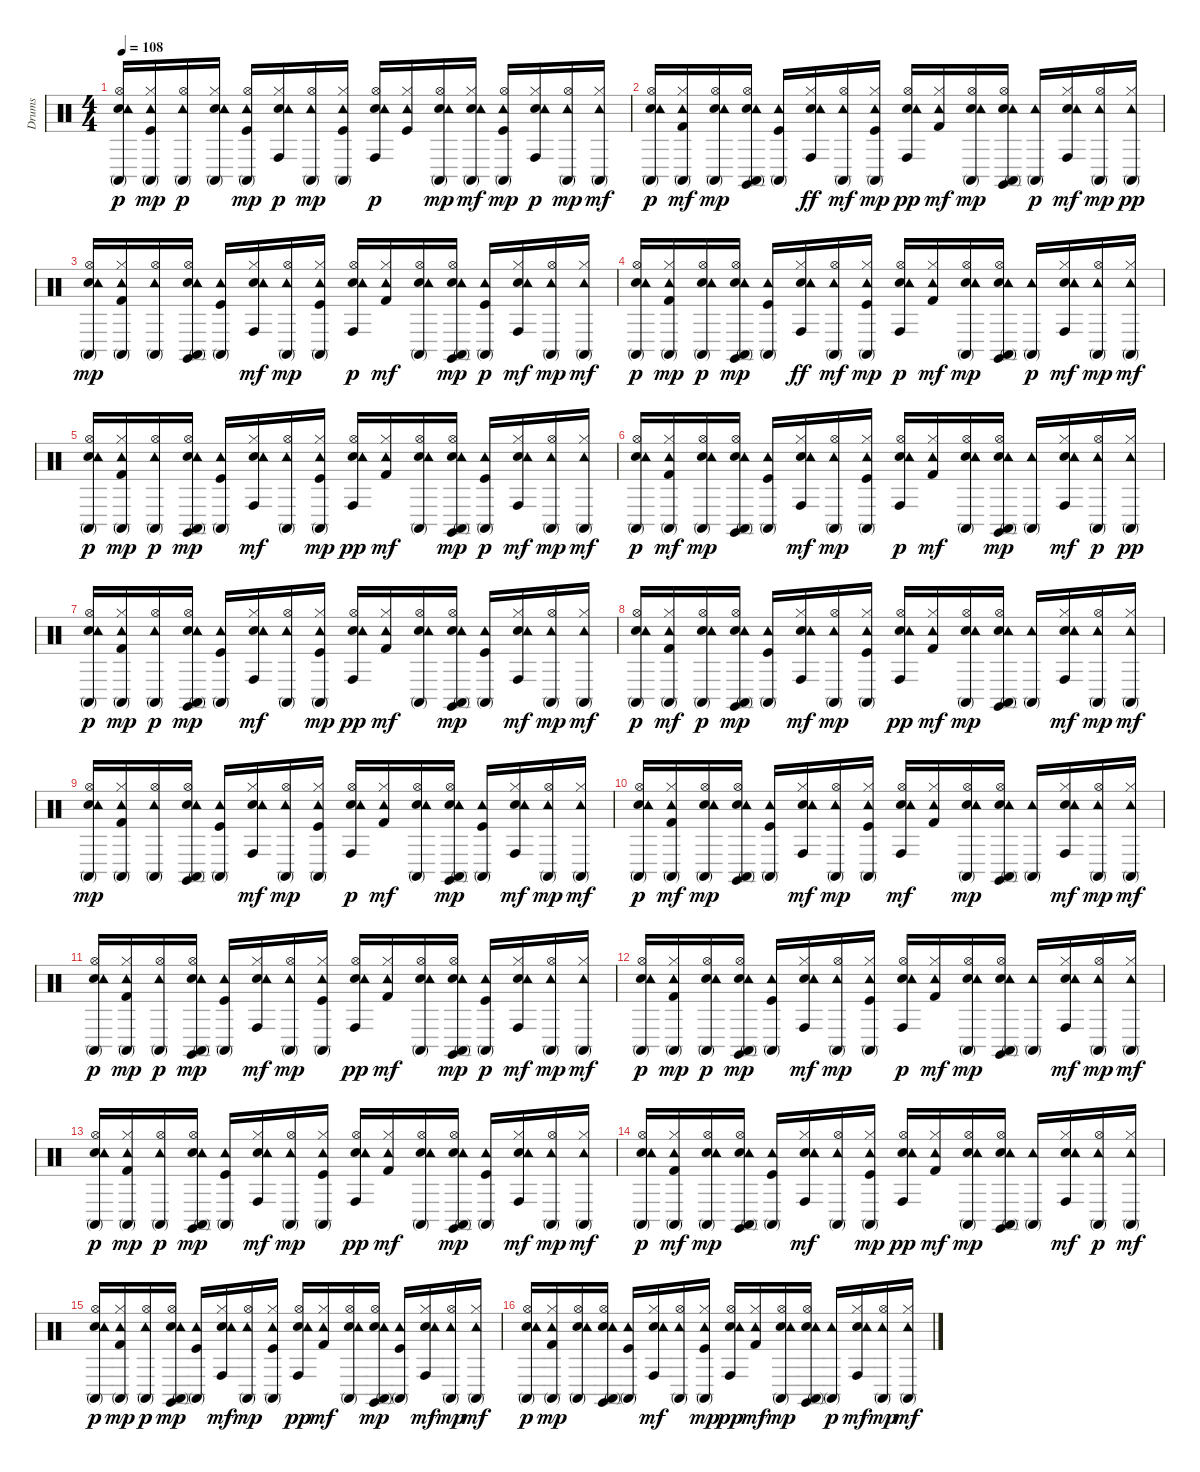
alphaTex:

\track ("Drums" "Drums") {instrument percussion}
\staff {score}
\articulation defaults
\ts (4 4)
\tempo 108
\clef neutral
\ks c
("Snare (hit) 2" "Hi-Hat (open)" "Tambourine (hit)" "Conga high (mute)").16{dy p} ("Kick (hit)" "Hi-Hat (closed)" "Tambourine (hit)" "Conga high (mute)").16{dy mp} ("Hi-Hat (open)" "Tambourine (hit)" "Conga high (mute)").16{dy p} ("Snare (hit) 2" "Hi-Hat (closed)" "Tambourine (hit)" "Conga high (mute)").16 ("Kick (hit)" "Hi-Hat (open)" "Tambourine (hit)" "Conga high (mute)").16{dy mp} ("Electric Snare (hit)" "Hi-Hat (closed)" "Tambourine (hit)" "Conga high (hit)").16{dy p} ("Hi-Hat (open)" "Tambourine (hit)" "Conga high (mute)").16{dy mp} ("Kick (hit)" "Hi-Hat (closed)" "Tambourine (hit)" "Conga high (mute)").16 ("Snare (hit) 2" "Hi-Hat (open)" "Tambourine (hit)" "Conga high (hit)").16{dy p} ("Kick (hit)" "Hi-Hat (closed)" "Tambourine (hit)").16 ("Snare (hit) 2" "Hi-Hat (open)" "Tambourine (hit)" "Conga high (mute)").16{dy mp} ("Snare (hit) 2" "Hi-Hat (closed)" "Tambourine (hit)" "Conga high (mute)").16{dy mf} ("Kick (hit)" "Hi-Hat (open)" "Tambourine (hit)" "Conga high (mute)").16{dy mp} ("Electric Snare (hit)" "Hi-Hat (closed)" "Tambourine (hit)" "Conga high (hit)").16{dy p} ("Hi-Hat (open)" "Tambourine (hit)" "Conga high (mute)").16{dy mp} ("Hi-Hat (closed)" "Tambourine (hit)" "Conga high (mute)").16{dy mf} |
("Snare (hit) 2" "Hi-Hat (open)" "Tambourine (hit)" "Conga high (mute)").16{dy p} ("Kick (hit) 2" "Hi-Hat (closed)" "Tambourine (hit)" "Conga high (mute)").16{dy mf} ("Snare (hit) 2" "Hi-Hat (open)" "Tambourine (hit)" "Conga high (mute)").16{dy mp} ("Snare (hit) 2" "Hi-Hat (open)" "Tambourine (hit)" "Conga high (mute)" "Claves (hit)").16 ("Kick (hit)" "Tambourine (hit)" "Conga high (mute)").16 ("Snare (hit) 2" "Hi-Hat (closed)" "Tambourine (hit)" "Conga high (hit)").16{dy ff} ("Hi-Hat (open)" "Tambourine (hit)" "Conga high (mute)").16{dy mf} ("Kick (hit)" "Hi-Hat (closed)" "Tambourine (hit)" "Conga high (mute)").16{dy mp} ("Snare (hit) 2" "Hi-Hat (open)" "Tambourine (hit)" "Conga high (hit)").16{dy pp} ("Kick (hit) 2" "Hi-Hat (closed)" "Tambourine (hit)").16{dy mf} ("Snare (hit) 2" "Hi-Hat (open)" "Tambourine (hit)" "Conga high (mute)").16{dy mp} ("Snare (hit) 2" "Hi-Hat (open)" "Tambourine (hit)" "Conga high (mute)" "Claves (hit)").16 ("Tambourine (hit)" "Conga high (mute)").16{dy p} ("Snare (hit) 2" "Hi-Hat (closed)" "Tambourine (hit)" "Conga high (hit)").16{dy mf} ("Hi-Hat (open)" "Tambourine (hit)" "Conga high (mute)").16{dy mp} ("Hi-Hat (closed)" "Tambourine (hit)" "Conga high (mute)").16{dy pp} |
("Snare (hit) 2" "Hi-Hat (open)" "Tambourine (hit)" "Conga high (mute)").16{dy mp} ("Kick (hit) 2" "Hi-Hat (closed)" "Tambourine (hit)" "Conga high (mute)").16 ("Hi-Hat (open)" "Tambourine (hit)" "Conga high (mute)").16 ("Snare (hit) 2" "Hi-Hat (open)" "Tambourine (hit)" "Conga high (mute)" "Claves (hit)").16 ("Kick (hit)" "Tambourine (hit)" "Conga high (mute)").16 ("Snare (hit) 2" "Hi-Hat (closed)" "Tambourine (hit)" "Conga high (hit)").16{dy mf} ("Hi-Hat (open)" "Tambourine (hit)" "Conga high (mute)").16{dy mp} ("Kick (hit)" "Hi-Hat (closed)" "Tambourine (hit)" "Conga high (mute)").16 ("Snare (hit) 2" "Hi-Hat (open)" "Tambourine (hit)" "Conga high (hit)").16{dy p} ("Kick (hit) 2" "Hi-Hat (closed)" "Tambourine (hit)").16{dy mf} ("Snare (hit) 2" "Hi-Hat (open)" "Tambourine (hit)" "Conga high (mute)").16 ("Snare (hit) 2" "Hi-Hat (open)" "Tambourine (hit)" "Conga high (mute)" "Claves (hit)").16{dy mp} ("Kick (hit)" "Tambourine (hit)" "Conga high (mute)").16{dy p} ("Snare (hit) 2" "Hi-Hat (closed)" "Tambourine (hit)" "Conga high (hit)").16{dy mf} ("Hi-Hat (open)" "Tambourine (hit)" "Conga high (mute)").16{dy mp} ("Hi-Hat (closed)" "Tambourine (hit)" "Conga high (mute)").16{dy mf} |
("Snare (hit) 2" "Hi-Hat (open)" "Tambourine (hit)" "Conga high (mute)").16{dy p} ("Kick (hit) 2" "Hi-Hat (closed)" "Tambourine (hit)" "Conga high (mute)").16{dy mp} ("Snare (hit) 2" "Hi-Hat (open)" "Tambourine (hit)" "Conga high (mute)").16{dy p} ("Snare (hit) 2" "Hi-Hat (open)" "Tambourine (hit)" "Conga high (mute)" "Claves (hit)").16{dy mp} ("Kick (hit)" "Tambourine (hit)" "Conga high (mute)").16 ("Snare (hit) 2" "Hi-Hat (closed)" "Tambourine (hit)" "Conga high (hit)").16{dy ff} ("Hi-Hat (open)" "Tambourine (hit)" "Conga high (mute)").16{dy mf} ("Kick (hit)" "Hi-Hat (closed)" "Tambourine (hit)" "Conga high (mute)").16{dy mp} ("Snare (hit) 2" "Hi-Hat (open)" "Tambourine (hit)" "Conga high (hit)").16{dy p} ("Kick (hit) 2" "Hi-Hat (closed)" "Tambourine (hit)").16{dy mf} ("Snare (hit) 2" "Hi-Hat (open)" "Tambourine (hit)" "Conga high (mute)").16{dy mp} ("Snare (hit) 2" "Hi-Hat (open)" "Tambourine (hit)" "Conga high (mute)" "Claves (hit)").16 ("Tambourine (hit)" "Conga high (mute)").16{dy p} ("Snare (hit) 2" "Hi-Hat (closed)" "Tambourine (hit)" "Conga high (hit)").16{dy mf} ("Hi-Hat (open)" "Tambourine (hit)" "Conga high (mute)").16{dy mp} ("Hi-Hat (closed)" "Tambourine (hit)" "Conga high (mute)").16{dy mf} |
("Snare (hit) 2" "Hi-Hat (open)" "Tambourine (hit)" "Conga high (mute)").16{dy p} ("Kick (hit) 2" "Hi-Hat (closed)" "Tambourine (hit)" "Conga high (mute)").16{dy mp} ("Hi-Hat (open)" "Tambourine (hit)" "Conga high (mute)").16{dy p} ("Snare (hit) 2" "Hi-Hat (open)" "Tambourine (hit)" "Conga high (mute)" "Claves (hit)").16{dy mp} ("Kick (hit)" "Tambourine (hit)" "Conga high (mute)").16 ("Snare (hit) 2" "Hi-Hat (closed)" "Tambourine (hit)" "Conga high (hit)").16{dy mf} ("Hi-Hat (open)" "Tambourine (hit)" "Conga high (mute)").16 ("Kick (hit)" "Hi-Hat (closed)" "Tambourine (hit)" "Conga high (mute)").16{dy mp} ("Snare (hit) 2" "Hi-Hat (open)" "Tambourine (hit)" "Conga high (hit)").16{dy pp} ("Kick (hit) 2" "Hi-Hat (closed)" "Tambourine (hit)").16{dy mf} ("Snare (hit) 2" "Hi-Hat (open)" "Tambourine (hit)" "Conga high (mute)").16 ("Snare (hit) 2" "Hi-Hat (open)" "Tambourine (hit)" "Conga high (mute)" "Claves (hit)").16{dy mp} ("Kick (hit)" "Tambourine (hit)" "Conga high (mute)").16{dy p} ("Snare (hit) 2" "Hi-Hat (closed)" "Tambourine (hit)" "Conga high (hit)").16{dy mf} ("Hi-Hat (open)" "Tambourine (hit)" "Conga high (mute)").16{dy mp} ("Hi-Hat (closed)" "Tambourine (hit)" "Conga high (mute)").16{dy mf} |
("Snare (hit) 2" "Hi-Hat (open)" "Tambourine (hit)" "Conga high (mute)").16{dy p} ("Kick (hit) 2" "Hi-Hat (closed)" "Tambourine (hit)" "Conga high (mute)").16{dy mf} ("Snare (hit) 2" "Hi-Hat (open)" "Tambourine (hit)" "Conga high (mute)").16{dy mp} ("Snare (hit) 2" "Hi-Hat (open)" "Tambourine (hit)" "Conga high (mute)" "Claves (hit)").16 ("Kick (hit)" "Tambourine (hit)" "Conga high (mute)").16 ("Snare (hit) 2" "Hi-Hat (closed)" "Tambourine (hit)" "Conga high (hit)").16{dy mf} ("Hi-Hat (open)" "Tambourine (hit)" "Conga high (mute)").16{dy mp} ("Kick (hit)" "Hi-Hat (closed)" "Tambourine (hit)" "Conga high (mute)").16 ("Snare (hit) 2" "Hi-Hat (open)" "Tambourine (hit)" "Conga high (hit)").16{dy p} ("Kick (hit) 2" "Hi-Hat (closed)" "Tambourine (hit)").16{dy mf} ("Snare (hit) 2" "Hi-Hat (open)" "Tambourine (hit)" "Conga high (mute)").16 ("Snare (hit) 2" "Hi-Hat (open)" "Tambourine (hit)" "Conga high (mute)" "Claves (hit)").16{dy mp} ("Tambourine (hit)" "Conga high (mute)").16 ("Snare (hit) 2" "Hi-Hat (closed)" "Tambourine (hit)" "Conga high (hit)").16{dy mf} ("Hi-Hat (open)" "Tambourine (hit)" "Conga high (mute)").16{dy p} ("Hi-Hat (closed)" "Tambourine (hit)" "Conga high (mute)").16{dy pp} |
("Snare (hit) 2" "Hi-Hat (open)" "Tambourine (hit)" "Conga high (mute)").16{dy p} ("Kick (hit) 2" "Hi-Hat (closed)" "Tambourine (hit)" "Conga high (mute)").16{dy mp} ("Hi-Hat (open)" "Tambourine (hit)" "Conga high (mute)").16{dy p} ("Snare (hit) 2" "Hi-Hat (open)" "Tambourine (hit)" "Conga high (mute)" "Claves (hit)").16{dy mp} ("Kick (hit)" "Tambourine (hit)" "Conga high (mute)").16 ("Snare (hit) 2" "Hi-Hat (closed)" "Tambourine (hit)" "Conga high (hit)").16{dy mf} ("Hi-Hat (open)" "Tambourine (hit)" "Conga high (mute)").16 ("Kick (hit)" "Hi-Hat (closed)" "Tambourine (hit)" "Conga high (mute)").16{dy mp} ("Snare (hit) 2" "Hi-Hat (open)" "Tambourine (hit)" "Conga high (hit)").16{dy pp} ("Kick (hit) 2" "Hi-Hat (closed)" "Tambourine (hit)").16{dy mf} ("Snare (hit) 2" "Hi-Hat (open)" "Tambourine (hit)" "Conga high (mute)").16 ("Snare (hit) 2" "Hi-Hat (open)" "Tambourine (hit)" "Conga high (mute)" "Claves (hit)").16{dy mp} ("Kick (hit)" "Tambourine (hit)" "Conga high (mute)").16 ("Snare (hit) 2" "Hi-Hat (closed)" "Tambourine (hit)" "Conga high (hit)").16{dy mf} ("Hi-Hat (open)" "Tambourine (hit)" "Conga high (mute)").16{dy mp} ("Hi-Hat (closed)" "Tambourine (hit)" "Conga high (mute)").16{dy mf} |
("Snare (hit) 2" "Hi-Hat (open)" "Tambourine (hit)" "Conga high (mute)").16{dy p} ("Kick (hit) 2" "Hi-Hat (closed)" "Tambourine (hit)" "Conga high (mute)").16{dy mf} ("Snare (hit) 2" "Hi-Hat (open)" "Tambourine (hit)" "Conga high (mute)").16{dy p} ("Snare (hit) 2" "Hi-Hat (open)" "Tambourine (hit)" "Conga high (mute)" "Claves (hit)").16{dy mp} ("Kick (hit)" "Tambourine (hit)" "Conga high (mute)").16 ("Snare (hit) 2" "Hi-Hat (closed)" "Tambourine (hit)" "Conga high (hit)").16{dy mf} ("Hi-Hat (open)" "Tambourine (hit)" "Conga high (mute)").16{dy mp} ("Kick (hit)" "Hi-Hat (closed)" "Tambourine (hit)" "Conga high (mute)").16 ("Snare (hit) 2" "Hi-Hat (open)" "Tambourine (hit)" "Conga high (hit)").16{dy pp} ("Kick (hit) 2" "Hi-Hat (closed)" "Tambourine (hit)").16{dy mf} ("Snare (hit) 2" "Hi-Hat (open)" "Tambourine (hit)" "Conga high (mute)").16{dy mp} ("Snare (hit) 2" "Hi-Hat (open)" "Tambourine (hit)" "Conga high (mute)" "Claves (hit)").16 ("Tambourine (hit)" "Conga high (mute)").16 ("Snare (hit) 2" "Hi-Hat (closed)" "Tambourine (hit)" "Conga high (hit)").16{dy mf} ("Hi-Hat (open)" "Tambourine (hit)" "Conga high (mute)").16{dy mp} ("Hi-Hat (closed)" "Tambourine (hit)" "Conga high (mute)").16{dy mf} |
("Snare (hit) 2" "Hi-Hat (open)" "Tambourine (hit)" "Conga high (mute)").16{dy mp} ("Kick (hit) 2" "Hi-Hat (closed)" "Tambourine (hit)" "Conga high (mute)").16 ("Hi-Hat (open)" "Tambourine (hit)" "Conga high (mute)").16 ("Snare (hit) 2" "Hi-Hat (open)" "Tambourine (hit)" "Conga high (mute)" "Claves (hit)").16 ("Kick (hit)" "Tambourine (hit)" "Conga high (mute)").16 ("Snare (hit) 2" "Hi-Hat (closed)" "Tambourine (hit)" "Conga high (hit)").16{dy mf} ("Hi-Hat (open)" "Tambourine (hit)" "Conga high (mute)").16{dy mp} ("Kick (hit)" "Hi-Hat (closed)" "Tambourine (hit)" "Conga high (mute)").16 ("Snare (hit) 2" "Hi-Hat (open)" "Tambourine (hit)" "Conga high (hit)").16{dy p} ("Kick (hit) 2" "Hi-Hat (closed)" "Tambourine (hit)").16{dy mf} ("Snare (hit) 2" "Hi-Hat (open)" "Tambourine (hit)" "Conga high (mute)").16 ("Snare (hit) 2" "Hi-Hat (open)" "Tambourine (hit)" "Conga high (mute)" "Claves (hit)").16{dy mp} ("Kick (hit)" "Tambourine (hit)" "Conga high (mute)").16 ("Snare (hit) 2" "Hi-Hat (closed)" "Tambourine (hit)" "Conga high (hit)").16{dy mf} ("Hi-Hat (open)" "Tambourine (hit)" "Conga high (mute)").16{dy mp} ("Hi-Hat (closed)" "Tambourine (hit)" "Conga high (mute)").16{dy mf} |
("Snare (hit) 2" "Hi-Hat (open)" "Tambourine (hit)" "Conga high (mute)").16{dy p} ("Kick (hit) 2" "Hi-Hat (closed)" "Tambourine (hit)" "Conga high (mute)").16{dy mf} ("Snare (hit) 2" "Hi-Hat (open)" "Tambourine (hit)" "Conga high (mute)").16{dy mp} ("Snare (hit) 2" "Hi-Hat (open)" "Tambourine (hit)" "Conga high (mute)" "Claves (hit)").16 ("Kick (hit)" "Tambourine (hit)" "Conga high (mute)").16 ("Snare (hit) 2" "Hi-Hat (closed)" "Tambourine (hit)" "Conga high (hit)").16{dy mf} ("Hi-Hat (open)" "Tambourine (hit)" "Conga high (mute)").16{dy mp} ("Kick (hit)" "Hi-Hat (closed)" "Tambourine (hit)" "Conga high (mute)").16 ("Snare (hit) 2" "Hi-Hat (open)" "Tambourine (hit)" "Conga high (hit)").16{dy mf} ("Kick (hit) 2" "Hi-Hat (closed)" "Tambourine (hit)").16 ("Snare (hit) 2" "Hi-Hat (open)" "Tambourine (hit)" "Conga high (mute)").16{dy mp} ("Snare (hit) 2" "Hi-Hat (open)" "Tambourine (hit)" "Conga high (mute)" "Claves (hit)").16 ("Tambourine (hit)" "Conga high (mute)").16 ("Snare (hit) 2" "Hi-Hat (closed)" "Tambourine (hit)" "Conga high (hit)").16{dy mf} ("Hi-Hat (open)" "Tambourine (hit)" "Conga high (mute)").16{dy mp} ("Hi-Hat (closed)" "Tambourine (hit)" "Conga high (mute)").16{dy mf} |
("Snare (hit) 2" "Hi-Hat (open)" "Tambourine (hit)" "Conga high (mute)").16{dy p} ("Kick (hit) 2" "Hi-Hat (closed)" "Tambourine (hit)" "Conga high (mute)").16{dy mp} ("Hi-Hat (open)" "Tambourine (hit)" "Conga high (mute)").16{dy p} ("Snare (hit) 2" "Hi-Hat (open)" "Tambourine (hit)" "Conga high (mute)" "Claves (hit)").16{dy mp} ("Kick (hit)" "Tambourine (hit)" "Conga high (mute)").16 ("Snare (hit) 2" "Hi-Hat (closed)" "Tambourine (hit)" "Conga high (hit)").16{dy mf} ("Hi-Hat (open)" "Tambourine (hit)" "Conga high (mute)").16{dy mp} ("Kick (hit)" "Hi-Hat (closed)" "Tambourine (hit)" "Conga high (mute)").16 ("Snare (hit) 2" "Hi-Hat (open)" "Tambourine (hit)" "Conga high (hit)").16{dy pp} ("Kick (hit) 2" "Hi-Hat (closed)" "Tambourine (hit)").16{dy mf} ("Snare (hit) 2" "Hi-Hat (open)" "Tambourine (hit)" "Conga high (mute)").16 ("Snare (hit) 2" "Hi-Hat (open)" "Tambourine (hit)" "Conga high (mute)" "Claves (hit)").16{dy mp} ("Kick (hit)" "Tambourine (hit)" "Conga high (mute)").16{dy p} ("Snare (hit) 2" "Hi-Hat (closed)" "Tambourine (hit)" "Conga high (hit)").16{dy mf} ("Hi-Hat (open)" "Tambourine (hit)" "Conga high (mute)").16{dy mp} ("Hi-Hat (closed)" "Tambourine (hit)" "Conga high (mute)").16{dy mf} |
("Snare (hit) 2" "Hi-Hat (open)" "Tambourine (hit)" "Conga high (mute)").16{dy p} ("Kick (hit) 2" "Hi-Hat (closed)" "Tambourine (hit)" "Conga high (mute)").16{dy mp} ("Snare (hit) 2" "Hi-Hat (open)" "Tambourine (hit)" "Conga high (mute)").16{dy p} ("Snare (hit) 2" "Hi-Hat (open)" "Tambourine (hit)" "Conga high (mute)" "Claves (hit)").16{dy mp} ("Kick (hit)" "Tambourine (hit)" "Conga high (mute)").16 ("Snare (hit) 2" "Hi-Hat (closed)" "Tambourine (hit)" "Conga high (hit)").16{dy mf} ("Hi-Hat (open)" "Tambourine (hit)" "Conga high (mute)").16{dy mp} ("Kick (hit)" "Hi-Hat (closed)" "Tambourine (hit)" "Conga high (mute)").16 ("Snare (hit) 2" "Hi-Hat (open)" "Tambourine (hit)" "Conga high (hit)").16{dy p} ("Kick (hit) 2" "Hi-Hat (closed)" "Tambourine (hit)").16{dy mf} ("Snare (hit) 2" "Hi-Hat (open)" "Tambourine (hit)" "Conga high (mute)").16{dy mp} ("Snare (hit) 2" "Hi-Hat (open)" "Tambourine (hit)" "Conga high (mute)" "Claves (hit)").16 ("Tambourine (hit)" "Conga high (mute)").16 ("Snare (hit) 2" "Hi-Hat (closed)" "Tambourine (hit)" "Conga high (hit)").16{dy mf} ("Hi-Hat (open)" "Tambourine (hit)" "Conga high (mute)").16{dy mp} ("Hi-Hat (closed)" "Tambourine (hit)" "Conga high (mute)").16{dy mf} |
("Snare (hit) 2" "Hi-Hat (open)" "Tambourine (hit)" "Conga high (mute)").16{dy p} ("Kick (hit) 2" "Hi-Hat (closed)" "Tambourine (hit)" "Conga high (mute)").16{dy mp} ("Hi-Hat (open)" "Tambourine (hit)" "Conga high (mute)").16{dy p} ("Snare (hit) 2" "Hi-Hat (open)" "Tambourine (hit)" "Conga high (mute)" "Claves (hit)").16{dy mp} ("Kick (hit)" "Tambourine (hit)" "Conga high (mute)").16 ("Snare (hit) 2" "Hi-Hat (closed)" "Tambourine (hit)" "Conga high (hit)").16{dy mf} ("Hi-Hat (open)" "Tambourine (hit)" "Conga high (mute)").16{dy mp} ("Kick (hit)" "Hi-Hat (closed)" "Tambourine (hit)" "Conga high (mute)").16 ("Snare (hit) 2" "Hi-Hat (open)" "Tambourine (hit)" "Conga high (hit)").16{dy pp} ("Kick (hit) 2" "Hi-Hat (closed)" "Tambourine (hit)").16{dy mf} ("Snare (hit) 2" "Hi-Hat (open)" "Tambourine (hit)" "Conga high (mute)").16 ("Snare (hit) 2" "Hi-Hat (open)" "Tambourine (hit)" "Conga high (mute)" "Claves (hit)").16{dy mp} ("Kick (hit)" "Tambourine (hit)" "Conga high (mute)").16 ("Snare (hit) 2" "Hi-Hat (closed)" "Tambourine (hit)" "Conga high (hit)").16{dy mf} ("Hi-Hat (open)" "Tambourine (hit)" "Conga high (mute)").16{dy mp} ("Hi-Hat (closed)" "Tambourine (hit)" "Conga high (mute)").16{dy mf} |
("Snare (hit) 2" "Hi-Hat (open)" "Tambourine (hit)" "Conga high (mute)").16{dy p} ("Kick (hit) 2" "Hi-Hat (closed)" "Tambourine (hit)" "Conga high (mute)").16{dy mf} ("Snare (hit) 2" "Hi-Hat (open)" "Tambourine (hit)" "Conga high (mute)").16{dy mp} ("Snare (hit) 2" "Hi-Hat (open)" "Tambourine (hit)" "Conga high (mute)" "Claves (hit)").16 ("Kick (hit)" "Tambourine (hit)" "Conga high (mute)").16 ("Snare (hit) 2" "Hi-Hat (closed)" "Tambourine (hit)" "Conga high (hit)").16{dy mf} ("Hi-Hat (open)" "Tambourine (hit)" "Conga high (mute)").16 ("Kick (hit)" "Hi-Hat (closed)" "Tambourine (hit)" "Conga high (mute)").16{dy mp} ("Snare (hit) 2" "Hi-Hat (open)" "Tambourine (hit)" "Conga high (hit)").16{dy pp} ("Kick (hit) 2" "Hi-Hat (closed)" "Tambourine (hit)").16{dy mf} ("Snare (hit) 2" "Hi-Hat (open)" "Tambourine (hit)" "Conga high (mute)").16{dy mp} ("Snare (hit) 2" "Hi-Hat (open)" "Tambourine (hit)" "Conga high (mute)" "Claves (hit)").16 ("Tambourine (hit)" "Conga high (mute)").16 ("Snare (hit) 2" "Hi-Hat (closed)" "Tambourine (hit)" "Conga high (hit)").16{dy mf} ("Hi-Hat (open)" "Tambourine (hit)" "Conga high (mute)").16{dy p} ("Hi-Hat (closed)" "Tambourine (hit)" "Conga high (mute)").16{dy mf} |
("Snare (hit) 2" "Hi-Hat (open)" "Tambourine (hit)" "Conga high (mute)").16{dy p} ("Kick (hit) 2" "Hi-Hat (closed)" "Tambourine (hit)" "Conga high (mute)").16{dy mp} ("Hi-Hat (open)" "Tambourine (hit)" "Conga high (mute)").16{dy p} ("Snare (hit) 2" "Hi-Hat (open)" "Tambourine (hit)" "Conga high (mute)" "Claves (hit)").16{dy mp} ("Kick (hit)" "Tambourine (hit)" "Conga high (mute)").16 ("Snare (hit) 2" "Hi-Hat (closed)" "Tambourine (hit)" "Conga high (hit)").16{dy mf} ("Hi-Hat (open)" "Tambourine (hit)" "Conga high (mute)").16{dy mp} ("Kick (hit)" "Hi-Hat (closed)" "Tambourine (hit)" "Conga high (mute)").16 ("Snare (hit) 2" "Hi-Hat (open)" "Tambourine (hit)" "Conga high (hit)").16{dy pp} ("Kick (hit) 2" "Hi-Hat (closed)" "Tambourine (hit)").16{dy mf} ("Snare (hit) 2" "Hi-Hat (open)" "Tambourine (hit)" "Conga high (mute)").16 ("Snare (hit) 2" "Hi-Hat (open)" "Tambourine (hit)" "Conga high (mute)" "Claves (hit)").16{dy mp} ("Kick (hit)" "Tambourine (hit)" "Conga high (mute)").16 ("Snare (hit) 2" "Hi-Hat (closed)" "Tambourine (hit)" "Conga high (hit)").16{dy mf} ("Hi-Hat (open)" "Tambourine (hit)" "Conga high (mute)").16{dy mp} ("Hi-Hat (closed)" "Tambourine (hit)" "Conga high (mute)").16{dy mf} |
("Snare (hit) 2" "Hi-Hat (open)" "Tambourine (hit)" "Conga high (mute)").16{dy p} ("Kick (hit) 2" "Hi-Hat (closed)" "Tambourine (hit)" "Conga high (mute)").16{dy mp} ("Snare (hit) 2" "Hi-Hat (open)" "Tambourine (hit)" "Conga high (mute)").16 ("Snare (hit) 2" "Hi-Hat (open)" "Tambourine (hit)" "Conga high (mute)" "Claves (hit)").16 ("Kick (hit)" "Tambourine (hit)" "Conga high (mute)").16 ("Snare (hit) 2" "Hi-Hat (closed)" "Tambourine (hit)" "Conga high (hit)").16{dy mf} ("Hi-Hat (open)" "Tambourine (hit)" "Conga high (mute)").16 ("Kick (hit)" "Hi-Hat (closed)" "Tambourine (hit)" "Conga high (mute)").16{dy mp} ("Snare (hit) 2" "Hi-Hat (open)" "Tambourine (hit)" "Conga high (hit)").16{dy pp} ("Kick (hit) 2" "Hi-Hat (closed)" "Tambourine (hit)").16{dy mf} ("Snare (hit) 2" "Hi-Hat (open)" "Tambourine (hit)" "Conga high (mute)").16{dy mp} ("Snare (hit) 2" "Hi-Hat (open)" "Tambourine (hit)" "Conga high (mute)" "Claves (hit)").16 ("Tambourine (hit)" "Conga high (mute)").16{dy p} ("Snare (hit) 2" "Hi-Hat (closed)" "Tambourine (hit)" "Conga high (hit)").16{dy mf} ("Hi-Hat (open)" "Tambourine (hit)" "Conga high (mute)").16{dy mp} ("Hi-Hat (closed)" "Tambourine (hit)" "Conga high (mute)").16{dy mf}
